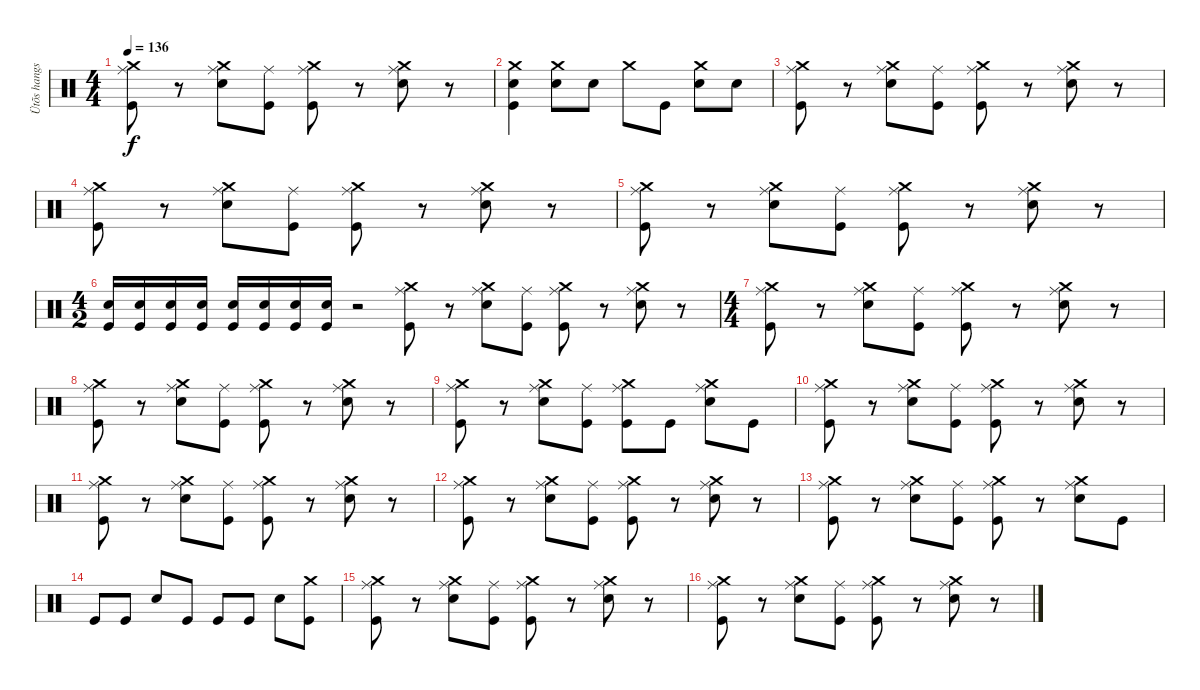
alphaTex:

\track ("Ütõs hangszer" "Ütõs hangs") {instrument percussion}
\staff {score}
\articulation defaults
\ts (4 4)
\tempo 136
\clef neutral
\ks c
("Crash medium (hit)" "Ride (middle)" "Kick (hit)").8{dy f} r.8 ("Crash medium (hit)" "Ride (middle)" "Electric Snare (hit)").8 ("Ride (middle)" "Kick (hit)").8 ("Crash medium (hit)" "Ride (middle)" "Kick (hit)").8 r.8 ("Crash medium (hit)" "Ride (middle)" "Electric Snare (hit)").8 r.8 |
("Crash medium (hit)" "Electric Snare (hit)" "Kick (hit)").4 ("Crash medium (hit)" "Electric Snare (hit)").8 "Electric Snare (hit)".8 "Crash medium (hit)".8 "Kick (hit)".8 ("Crash medium (hit)" "Electric Snare (hit)").8 "Electric Snare (hit)".8 |
("Crash medium (hit)" "Ride (middle)" "Kick (hit)").8 r.8 ("Crash medium (hit)" "Ride (middle)" "Electric Snare (hit)").8 ("Ride (middle)" "Kick (hit)").8 ("Crash medium (hit)" "Ride (middle)" "Kick (hit)").8 r.8 ("Crash medium (hit)" "Ride (middle)" "Electric Snare (hit)").8 r.8 |
("Crash medium (hit)" "Ride (middle)" "Kick (hit)").8 r.8 ("Crash medium (hit)" "Ride (middle)" "Electric Snare (hit)").8 ("Ride (middle)" "Kick (hit)").8 ("Crash medium (hit)" "Ride (middle)" "Kick (hit)").8 r.8 ("Crash medium (hit)" "Ride (middle)" "Electric Snare (hit)").8 r.8 |
("Crash medium (hit)" "Ride (middle)" "Kick (hit)").8 r.8 ("Crash medium (hit)" "Ride (middle)" "Electric Snare (hit)").8 ("Ride (middle)" "Kick (hit)").8 ("Crash medium (hit)" "Ride (middle)" "Kick (hit)").8 r.8 ("Crash medium (hit)" "Ride (middle)" "Electric Snare (hit)").8 r.8 |
\ts (4 2)
("Electric Snare (hit)" "Kick (hit)").16 ("Electric Snare (hit)" "Kick (hit)").16 ("Electric Snare (hit)" "Kick (hit)").16 ("Electric Snare (hit)" "Kick (hit)").16 ("Electric Snare (hit)" "Kick (hit)").16 ("Electric Snare (hit)" "Kick (hit)").16 ("Electric Snare (hit)" "Kick (hit)").16 ("Electric Snare (hit)" "Kick (hit)").16 r.2 ("Crash medium (hit)" "Ride (middle)" "Kick (hit)").8 r.8 ("Crash medium (hit)" "Ride (middle)" "Electric Snare (hit)").8 ("Ride (middle)" "Kick (hit)").8 ("Crash medium (hit)" "Ride (middle)" "Kick (hit)").8 r.8 ("Crash medium (hit)" "Ride (middle)" "Electric Snare (hit)").8 r.8 |
\ts (4 4)
("Crash medium (hit)" "Ride (middle)" "Kick (hit)").8 r.8 ("Crash medium (hit)" "Ride (middle)" "Electric Snare (hit)").8 ("Ride (middle)" "Kick (hit)").8 ("Crash medium (hit)" "Ride (middle)" "Kick (hit)").8 r.8 ("Crash medium (hit)" "Ride (middle)" "Electric Snare (hit)").8 r.8 |
("Crash medium (hit)" "Ride (middle)" "Kick (hit)").8 r.8 ("Crash medium (hit)" "Ride (middle)" "Electric Snare (hit)").8 ("Ride (middle)" "Kick (hit)").8 ("Crash medium (hit)" "Ride (middle)" "Kick (hit)").8 r.8 ("Crash medium (hit)" "Ride (middle)" "Electric Snare (hit)").8 r.8 |
("Crash medium (hit)" "Ride (middle)" "Kick (hit)").8 r.8 ("Crash medium (hit)" "Ride (middle)" "Electric Snare (hit)").8 ("Ride (middle)" "Kick (hit)").8 ("Crash medium (hit)" "Ride (middle)" "Kick (hit)").8 "Kick (hit)".8 ("Crash medium (hit)" "Ride (middle)" "Electric Snare (hit)").8 "Kick (hit)".8 |
("Crash medium (hit)" "Ride (middle)" "Kick (hit)").8 r.8 ("Crash medium (hit)" "Ride (middle)" "Electric Snare (hit)").8 ("Ride (middle)" "Kick (hit)").8 ("Crash medium (hit)" "Ride (middle)" "Kick (hit)").8 r.8 ("Crash medium (hit)" "Ride (middle)" "Electric Snare (hit)").8 r.8 |
("Crash medium (hit)" "Ride (middle)" "Kick (hit)").8 r.8 ("Crash medium (hit)" "Ride (middle)" "Electric Snare (hit)").8 ("Ride (middle)" "Kick (hit)").8 ("Crash medium (hit)" "Ride (middle)" "Kick (hit)").8 r.8 ("Crash medium (hit)" "Ride (middle)" "Electric Snare (hit)").8 r.8 |
("Crash medium (hit)" "Ride (middle)" "Kick (hit)").8 r.8 ("Crash medium (hit)" "Ride (middle)" "Electric Snare (hit)").8 ("Ride (middle)" "Kick (hit)").8 ("Crash medium (hit)" "Ride (middle)" "Kick (hit)").8 r.8 ("Crash medium (hit)" "Ride (middle)" "Electric Snare (hit)").8 r.8 |
("Crash medium (hit)" "Ride (middle)" "Kick (hit)").8 r.8 ("Crash medium (hit)" "Ride (middle)" "Electric Snare (hit)").8 ("Ride (middle)" "Kick (hit)").8 ("Crash medium (hit)" "Ride (middle)" "Kick (hit)").8 r.8 ("Crash medium (hit)" "Ride (middle)" "Electric Snare (hit)").8 "Kick (hit)".8 |
"Kick (hit)".8 "Kick (hit)".8 "Electric Snare (hit)".8 "Kick (hit)".8 "Kick (hit)".8 "Kick (hit)".8 "Electric Snare (hit)".8 ("Crash medium (hit)" "Kick (hit)").8 |
("Crash medium (hit)" "Ride (middle)" "Kick (hit)").8 r.8 ("Crash medium (hit)" "Ride (middle)" "Electric Snare (hit)").8 ("Ride (middle)" "Kick (hit)").8 ("Crash medium (hit)" "Ride (middle)" "Kick (hit)").8 r.8 ("Crash medium (hit)" "Ride (middle)" "Electric Snare (hit)").8 r.8 |
("Crash medium (hit)" "Ride (middle)" "Kick (hit)").8 r.8 ("Crash medium (hit)" "Ride (middle)" "Electric Snare (hit)").8 ("Ride (middle)" "Kick (hit)").8 ("Crash medium (hit)" "Ride (middle)" "Kick (hit)").8 r.8 ("Crash medium (hit)" "Ride (middle)" "Electric Snare (hit)").8 r.8
